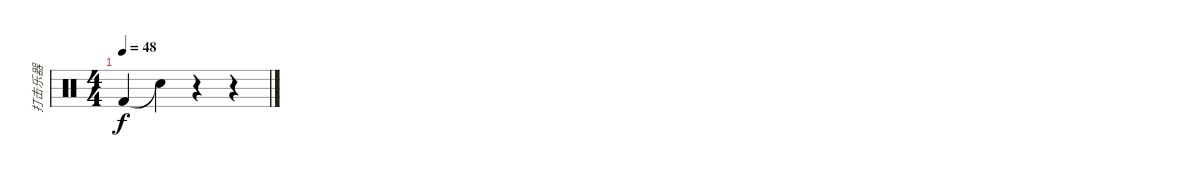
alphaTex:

\track ("打击乐器" "打击乐器") {instrument percussion}
\staff {score}
\articulation defaults
\ts (4 4)
\tempo 48
\clef neutral
\ks c "Kick (hit) 2".4{dy f} "Snare (hit)"{t}.4
r.4 r.4
